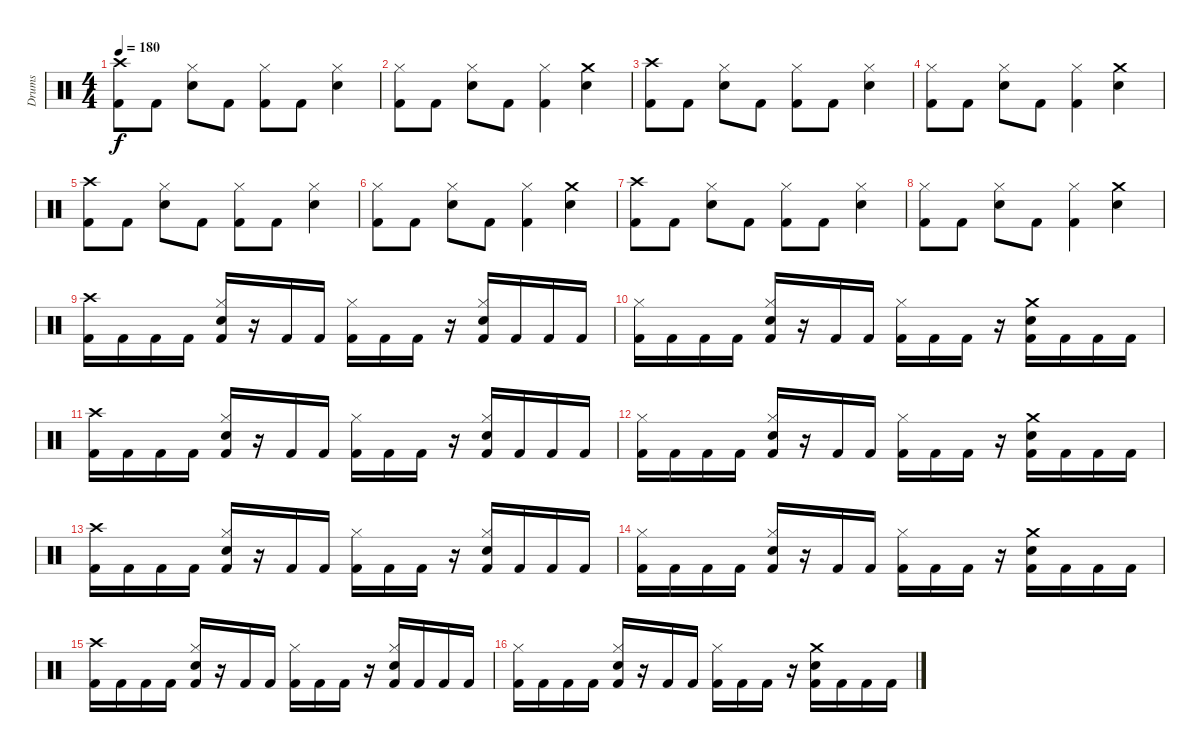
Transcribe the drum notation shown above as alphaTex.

\track ("Drums" "Drums") {instrument percussion}
\staff {score}
\articulation defaults
\ts (4 4)
\tempo 180
\clef neutral
\ks c
("Crash high (hit)" "Kick (hit) 2").8{dy f} "Kick (hit) 2".8 ("Hi-Hat (closed)" "Snare (hit) 2").8 "Kick (hit) 2".8 ("Hi-Hat (closed)" "Kick (hit) 2").8 "Kick (hit) 2".8 ("Hi-Hat (closed)" "Snare (hit) 2").4 |
("Hi-Hat (closed)" "Kick (hit) 2").8 "Kick (hit) 2".8 ("Hi-Hat (closed)" "Snare (hit) 2").8 "Kick (hit) 2".8 ("Hi-Hat (closed)" "Kick (hit) 2").4 ("Crash medium (hit)" "Snare (hit) 2").4 |
("Crash high (hit)" "Kick (hit) 2").8 "Kick (hit) 2".8 ("Hi-Hat (closed)" "Snare (hit) 2").8 "Kick (hit) 2".8 ("Hi-Hat (closed)" "Kick (hit) 2").8 "Kick (hit) 2".8 ("Hi-Hat (closed)" "Snare (hit) 2").4 |
("Hi-Hat (closed)" "Kick (hit) 2").8 "Kick (hit) 2".8 ("Hi-Hat (closed)" "Snare (hit) 2").8 "Kick (hit) 2".8 ("Hi-Hat (closed)" "Kick (hit) 2").4 ("Crash medium (hit)" "Snare (hit) 2").4 |
("Crash high (hit)" "Kick (hit) 2").8 "Kick (hit) 2".8 ("Hi-Hat (closed)" "Snare (hit) 2").8 "Kick (hit) 2".8 ("Hi-Hat (closed)" "Kick (hit) 2").8 "Kick (hit) 2".8 ("Hi-Hat (closed)" "Snare (hit) 2").4 |
("Hi-Hat (closed)" "Kick (hit) 2").8 "Kick (hit) 2".8 ("Hi-Hat (closed)" "Snare (hit) 2").8 "Kick (hit) 2".8 ("Hi-Hat (closed)" "Kick (hit) 2").4 ("Crash medium (hit)" "Snare (hit) 2").4 |
("Crash high (hit)" "Kick (hit) 2").8 "Kick (hit) 2".8 ("Hi-Hat (closed)" "Snare (hit) 2").8 "Kick (hit) 2".8 ("Hi-Hat (closed)" "Kick (hit) 2").8 "Kick (hit) 2".8 ("Hi-Hat (closed)" "Snare (hit) 2").4 |
("Hi-Hat (closed)" "Kick (hit) 2").8 "Kick (hit) 2".8 ("Hi-Hat (closed)" "Snare (hit) 2").8 "Kick (hit) 2".8 ("Hi-Hat (closed)" "Kick (hit) 2").4 ("Crash medium (hit)" "Snare (hit) 2").4 |
("Crash high (hit)" "Kick (hit) 2").16 "Kick (hit) 2".16 "Kick (hit) 2".16 "Kick (hit) 2".16 ("Hi-Hat (closed)" "Snare (hit) 2" "Kick (hit) 2").16 r.16 "Kick (hit) 2".16 "Kick (hit) 2".16 ("Hi-Hat (closed)" "Kick (hit) 2").16 "Kick (hit) 2".16 "Kick (hit) 2".16 r.16 ("Hi-Hat (closed)" "Snare (hit) 2" "Kick (hit) 2").16 "Kick (hit) 2".16 "Kick (hit) 2".16 "Kick (hit) 2".16 |
("Hi-Hat (closed)" "Kick (hit) 2").16 "Kick (hit) 2".16 "Kick (hit) 2".16 "Kick (hit) 2".16 ("Hi-Hat (closed)" "Snare (hit) 2" "Kick (hit) 2").16 r.16 "Kick (hit) 2".16 "Kick (hit) 2".16 ("Hi-Hat (closed)" "Kick (hit) 2").16 "Kick (hit) 2".16 "Kick (hit) 2".16 r.16 ("Crash medium (hit)" "Snare (hit) 2" "Kick (hit) 2").16 "Kick (hit) 2".16 "Kick (hit) 2".16 "Kick (hit) 2".16 |
("Crash high (hit)" "Kick (hit) 2").16 "Kick (hit) 2".16 "Kick (hit) 2".16 "Kick (hit) 2".16 ("Hi-Hat (closed)" "Snare (hit) 2" "Kick (hit) 2").16 r.16 "Kick (hit) 2".16 "Kick (hit) 2".16 ("Hi-Hat (closed)" "Kick (hit) 2").16 "Kick (hit) 2".16 "Kick (hit) 2".16 r.16 ("Hi-Hat (closed)" "Snare (hit) 2" "Kick (hit) 2").16 "Kick (hit) 2".16 "Kick (hit) 2".16 "Kick (hit) 2".16 |
("Hi-Hat (closed)" "Kick (hit) 2").16 "Kick (hit) 2".16 "Kick (hit) 2".16 "Kick (hit) 2".16 ("Hi-Hat (closed)" "Snare (hit) 2" "Kick (hit) 2").16 r.16 "Kick (hit) 2".16 "Kick (hit) 2".16 ("Hi-Hat (closed)" "Kick (hit) 2").16 "Kick (hit) 2".16 "Kick (hit) 2".16 r.16 ("Crash medium (hit)" "Snare (hit) 2" "Kick (hit) 2").16 "Kick (hit) 2".16 "Kick (hit) 2".16 "Kick (hit) 2".16 |
("Crash high (hit)" "Kick (hit) 2").16 "Kick (hit) 2".16 "Kick (hit) 2".16 "Kick (hit) 2".16 ("Hi-Hat (closed)" "Snare (hit) 2" "Kick (hit) 2").16 r.16 "Kick (hit) 2".16 "Kick (hit) 2".16 ("Hi-Hat (closed)" "Kick (hit) 2").16 "Kick (hit) 2".16 "Kick (hit) 2".16 r.16 ("Hi-Hat (closed)" "Snare (hit) 2" "Kick (hit) 2").16 "Kick (hit) 2".16 "Kick (hit) 2".16 "Kick (hit) 2".16 |
("Hi-Hat (closed)" "Kick (hit) 2").16 "Kick (hit) 2".16 "Kick (hit) 2".16 "Kick (hit) 2".16 ("Hi-Hat (closed)" "Snare (hit) 2" "Kick (hit) 2").16 r.16 "Kick (hit) 2".16 "Kick (hit) 2".16 ("Hi-Hat (closed)" "Kick (hit) 2").16 "Kick (hit) 2".16 "Kick (hit) 2".16 r.16 ("Crash medium (hit)" "Snare (hit) 2" "Kick (hit) 2").16 "Kick (hit) 2".16 "Kick (hit) 2".16 "Kick (hit) 2".16 |
("Crash high (hit)" "Kick (hit) 2").16 "Kick (hit) 2".16 "Kick (hit) 2".16 "Kick (hit) 2".16 ("Hi-Hat (closed)" "Snare (hit) 2" "Kick (hit) 2").16 r.16 "Kick (hit) 2".16 "Kick (hit) 2".16 ("Hi-Hat (closed)" "Kick (hit) 2").16 "Kick (hit) 2".16 "Kick (hit) 2".16 r.16 ("Hi-Hat (closed)" "Snare (hit) 2" "Kick (hit) 2").16 "Kick (hit) 2".16 "Kick (hit) 2".16 "Kick (hit) 2".16 |
("Hi-Hat (closed)" "Kick (hit) 2").16 "Kick (hit) 2".16 "Kick (hit) 2".16 "Kick (hit) 2".16 ("Hi-Hat (closed)" "Snare (hit) 2" "Kick (hit) 2").16 r.16 "Kick (hit) 2".16 "Kick (hit) 2".16 ("Hi-Hat (closed)" "Kick (hit) 2").16 "Kick (hit) 2".16 "Kick (hit) 2".16 r.16 ("Crash medium (hit)" "Snare (hit) 2" "Kick (hit) 2").16 "Kick (hit) 2".16 "Kick (hit) 2".16 "Kick (hit) 2".16
